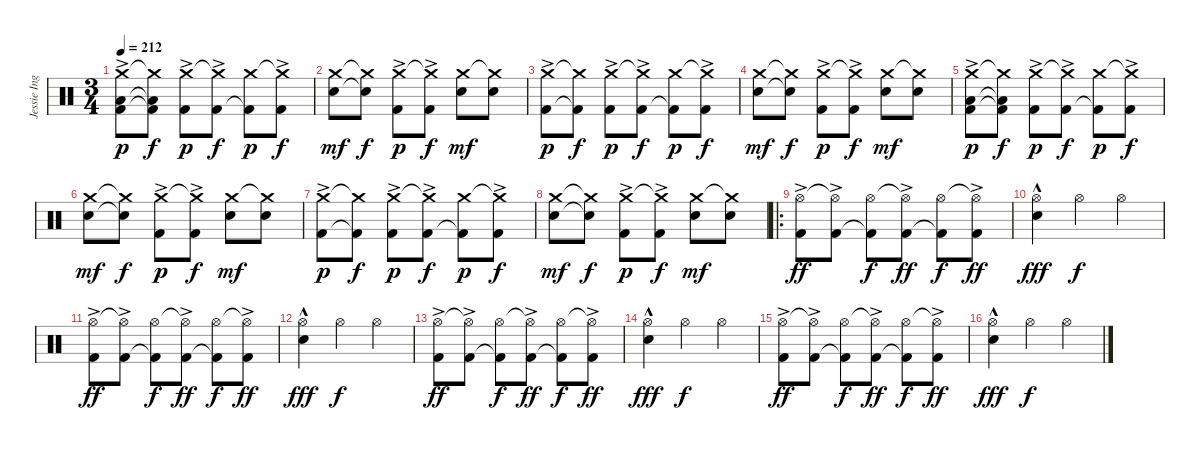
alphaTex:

\track ("Jessie Ingelevics" "Jessie Ing") {instrument percussion}
\staff {score}
\articulation defaults
\ts (3 4)
\tempo 212
\clef neutral
\ks c
("Crash medium (hit)" "Low Floor Tom (hit)" "Kick (hit) 2"{ac}).8{dy p} ("Crash medium (hit)"{t} "Low Floor Tom (hit)"{t} "Kick (hit) 2"{t}).8{dy f} ("Crash medium (hit)" "Kick (hit) 2"{ac}).8{dy p} ("Crash medium (hit)"{t} "Kick (hit) 2"{ac}).8{dy f} ("Crash medium (hit)" "Kick (hit) 2"{t}).8{dy p} ("Crash medium (hit)"{t} "Kick (hit) 2"{ac}).8{dy f} |
("Crash medium (hit)" "Electric Snare (hit)").8{dy mf} ("Crash medium (hit)"{t} "Electric Snare (hit)"{t}).8{dy f} ("Crash medium (hit)" "Kick (hit) 2"{ac}).8{dy p} ("Crash medium (hit)"{t} "Kick (hit) 2"{ac}).8{dy f} ("Crash medium (hit)" "Electric Snare (hit)").8{dy mf} ("Crash medium (hit)"{t} "Electric Snare (hit)").8 |
("Crash medium (hit)" "Kick (hit) 2"{ac}).8{dy p} ("Crash medium (hit)"{t} "Kick (hit) 2"{t}).8{dy f} ("Crash medium (hit)" "Kick (hit) 2"{ac}).8{dy p} ("Crash medium (hit)"{t} "Kick (hit) 2"{ac}).8{dy f} ("Crash medium (hit)" "Kick (hit) 2"{t}).8{dy p} ("Crash medium (hit)"{t} "Kick (hit) 2"{ac}).8{dy f} |
("Crash medium (hit)" "Electric Snare (hit)").8{dy mf} ("Crash medium (hit)"{t} "Electric Snare (hit)"{t}).8{dy f} ("Crash medium (hit)" "Kick (hit) 2"{ac}).8{dy p} ("Crash medium (hit)"{t} "Kick (hit) 2"{ac}).8{dy f} ("Crash medium (hit)" "Electric Snare (hit)").8{dy mf} ("Crash medium (hit)"{t} "Electric Snare (hit)").8 |
("Crash medium (hit)" "Low Floor Tom (hit)" "Kick (hit) 2"{ac}).8{dy p} ("Crash medium (hit)"{t} "Low Floor Tom (hit)"{t} "Kick (hit) 2"{t}).8{dy f} ("Crash medium (hit)" "Kick (hit) 2"{ac}).8{dy p} ("Crash medium (hit)"{t} "Kick (hit) 2"{ac}).8{dy f} ("Crash medium (hit)" "Kick (hit) 2"{t}).8{dy p} ("Crash medium (hit)"{t} "Kick (hit) 2"{ac}).8{dy f} |
("Crash medium (hit)" "Electric Snare (hit)").8{dy mf} ("Crash medium (hit)"{t} "Electric Snare (hit)"{t}).8{dy f} ("Crash medium (hit)" "Kick (hit) 2"{ac}).8{dy p} ("Crash medium (hit)"{t} "Kick (hit) 2"{ac}).8{dy f} ("Crash medium (hit)" "Electric Snare (hit)").8{dy mf} ("Crash medium (hit)"{t} "Electric Snare (hit)").8 |
("Crash medium (hit)" "Kick (hit) 2"{ac}).8{dy p} ("Crash medium (hit)"{t} "Kick (hit) 2"{t}).8{dy f} ("Crash medium (hit)" "Kick (hit) 2"{ac}).8{dy p} ("Crash medium (hit)"{t} "Kick (hit) 2"{ac}).8{dy f} ("Crash medium (hit)" "Kick (hit) 2"{t}).8{dy p} ("Crash medium (hit)"{t} "Kick (hit) 2"{ac}).8{dy f} |
("Crash medium (hit)" "Electric Snare (hit)").8{dy mf} ("Crash medium (hit)"{t} "Electric Snare (hit)"{t}).8{dy f} ("Crash medium (hit)" "Kick (hit) 2"{ac}).8{dy p} ("Crash medium (hit)"{t} "Kick (hit) 2"{ac}).8{dy f} ("Crash medium (hit)" "Electric Snare (hit)").8{dy mf} ("Crash medium (hit)"{t} "Electric Snare (hit)").8 |
\ro
("Hi-Hat (open)" "Kick (hit) 2"{ac}).8{dy ff} ("Hi-Hat (open)"{t} "Kick (hit) 2"{ac}).8 ("Hi-Hat (open)" "Kick (hit) 2"{t}).8{dy f} ("Hi-Hat (open)"{t} "Kick (hit) 2"{ac}).8{dy ff} ("Hi-Hat (open)" "Kick (hit) 2"{t}).8{dy f} ("Hi-Hat (open)"{t} "Kick (hit) 2"{ac}).8{dy ff} |
("Hi-Hat (open)" "Electric Snare (hit)"{hac}).4{dy fff} "Hi-Hat (open)".4{dy f} "Hi-Hat (open)".4 |
("Hi-Hat (open)" "Kick (hit) 2"{ac}).8{dy ff} ("Hi-Hat (open)"{t} "Kick (hit) 2"{ac}).8 ("Hi-Hat (open)" "Kick (hit) 2"{t}).8{dy f} ("Hi-Hat (open)"{t} "Kick (hit) 2"{ac}).8{dy ff} ("Hi-Hat (open)" "Kick (hit) 2"{t}).8{dy f} ("Hi-Hat (open)"{t} "Kick (hit) 2"{ac}).8{dy ff} |
("Hi-Hat (open)" "Electric Snare (hit)"{hac}).4{dy fff} "Hi-Hat (open)".4{dy f} "Hi-Hat (open)".4 |
("Hi-Hat (open)" "Kick (hit) 2"{ac}).8{dy ff} ("Hi-Hat (open)"{t} "Kick (hit) 2"{ac}).8 ("Hi-Hat (open)" "Kick (hit) 2"{t}).8{dy f} ("Hi-Hat (open)"{t} "Kick (hit) 2"{ac}).8{dy ff} ("Hi-Hat (open)" "Kick (hit) 2"{t}).8{dy f} ("Hi-Hat (open)"{t} "Kick (hit) 2"{ac}).8{dy ff} |
("Hi-Hat (open)" "Electric Snare (hit)"{hac}).4{dy fff} "Hi-Hat (open)".4{dy f} "Hi-Hat (open)".4 |
("Hi-Hat (open)" "Kick (hit) 2"{ac}).8{dy ff} ("Hi-Hat (open)"{t} "Kick (hit) 2"{ac}).8 ("Hi-Hat (open)" "Kick (hit) 2"{t}).8{dy f} ("Hi-Hat (open)"{t} "Kick (hit) 2"{ac}).8{dy ff} ("Hi-Hat (open)" "Kick (hit) 2"{t}).8{dy f} ("Hi-Hat (open)"{t} "Kick (hit) 2"{ac}).8{dy ff} |
("Hi-Hat (open)" "Electric Snare (hit)"{hac}).4{dy fff} "Hi-Hat (open)".4{dy f} "Hi-Hat (open)".4
